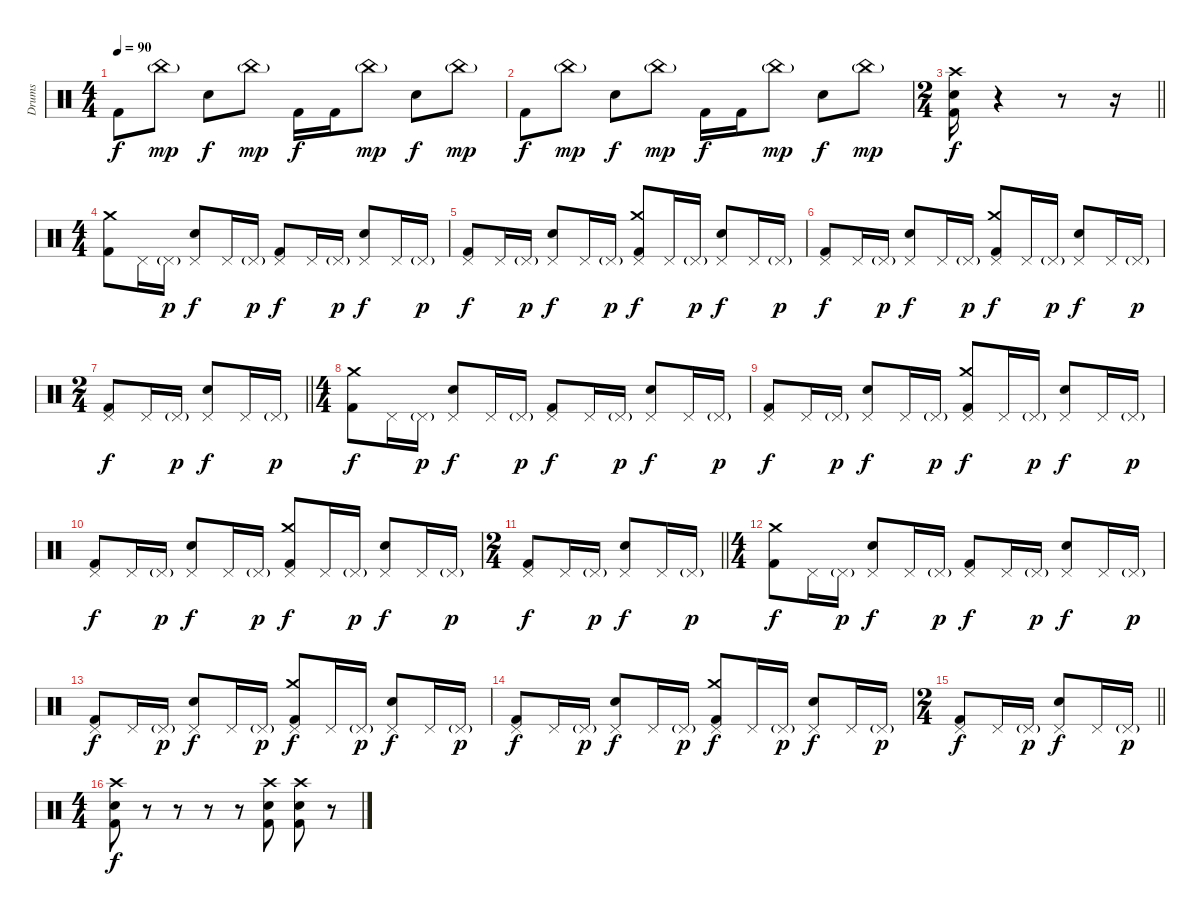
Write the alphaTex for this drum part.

\track ("Drums" "Drums") {instrument percussion}
\staff {score}
\articulation defaults
\ts (4 4)
\tempo 90
\clef neutral
\ks c "Kick (hit) 2".8{dy f} "China (hit)"{g}.8{dy mp} "Electric Snare (hit)".8{dy f} "China (hit)"{g}.8{dy mp} "Kick (hit) 2".16{dy f} "Kick (hit) 2".16 "China (hit)"{g}.8{dy mp} "Electric Snare (hit)".8{dy f} "China (hit)"{g}.8{dy mp}
|
"Kick (hit) 2".8{dy f} "China (hit)"{g}.8{dy mp} "Electric Snare (hit)".8{dy f} "China (hit)"{g}.8{dy mp} "Kick (hit) 2".16{dy f} "Kick (hit) 2".16 "China (hit)"{g}.8{dy mp} "Electric Snare (hit)".8{dy f} "China (hit)"{g}.8{dy mp} |
\ts (2 4)
\barLineRight lightlight
("Crash high (hit)" "Electric Snare (hit)" "Kick (hit) 2").16{dy f} r.4 r.8 r.16 |
\ts (4 4)
("Crash medium (hit)" "Kick (hit) 2").8 "Pedal Hi-Hat (hit)".16 "Pedal Hi-Hat (hit)"{g}.16{dy p} ("Pedal Hi-Hat (hit)" "Electric Snare (hit)").8{dy f} "Pedal Hi-Hat (hit)".16 "Pedal Hi-Hat (hit)"{g}.16{dy p} ("Pedal Hi-Hat (hit)" "Kick (hit) 2").8{dy f} "Pedal Hi-Hat (hit)".16 "Pedal Hi-Hat (hit)"{g}.16{dy p} ("Pedal Hi-Hat (hit)" "Electric Snare (hit)").8{dy f} "Pedal Hi-Hat (hit)".16 "Pedal Hi-Hat (hit)"{g}.16{dy p} |
("Pedal Hi-Hat (hit)" "Kick (hit) 2").8{dy f} "Pedal Hi-Hat (hit)".16 "Pedal Hi-Hat (hit)"{g}.16{dy p} ("Pedal Hi-Hat (hit)" "Electric Snare (hit)").8{dy f} "Pedal Hi-Hat (hit)".16 "Pedal Hi-Hat (hit)"{g}.16{dy p} ("Crash medium (hit)" "Pedal Hi-Hat (hit)" "Kick (hit) 2").8{dy f} "Pedal Hi-Hat (hit)".16 "Pedal Hi-Hat (hit)"{g}.16{dy p} ("Pedal Hi-Hat (hit)" "Electric Snare (hit)").8{dy f} "Pedal Hi-Hat (hit)".16 "Pedal Hi-Hat (hit)"{g}.16{dy p} |
("Pedal Hi-Hat (hit)" "Kick (hit) 2").8{dy f} "Pedal Hi-Hat (hit)".16 "Pedal Hi-Hat (hit)"{g}.16{dy p} ("Pedal Hi-Hat (hit)" "Electric Snare (hit)").8{dy f} "Pedal Hi-Hat (hit)".16 "Pedal Hi-Hat (hit)"{g}.16{dy p} ("Crash medium (hit)" "Pedal Hi-Hat (hit)" "Kick (hit) 2").8{dy f} "Pedal Hi-Hat (hit)".16 "Pedal Hi-Hat (hit)"{g}.16{dy p} ("Pedal Hi-Hat (hit)" "Electric Snare (hit)").8{dy f} "Pedal Hi-Hat (hit)".16 "Pedal Hi-Hat (hit)"{g}.16{dy p} |
\ts (2 4)
\barLineRight lightlight
("Pedal Hi-Hat (hit)" "Kick (hit) 2").8{dy f} "Pedal Hi-Hat (hit)".16 "Pedal Hi-Hat (hit)"{g}.16{dy p} ("Pedal Hi-Hat (hit)" "Electric Snare (hit)").8{dy f} "Pedal Hi-Hat (hit)".16 "Pedal Hi-Hat (hit)"{g}.16{dy p} |
\ts (4 4)
("Crash medium (hit)" "Kick (hit) 2").8{dy f} "Pedal Hi-Hat (hit)".16 "Pedal Hi-Hat (hit)"{g}.16{dy p} ("Pedal Hi-Hat (hit)" "Electric Snare (hit)").8{dy f} "Pedal Hi-Hat (hit)".16 "Pedal Hi-Hat (hit)"{g}.16{dy p} ("Pedal Hi-Hat (hit)" "Kick (hit) 2").8{dy f} "Pedal Hi-Hat (hit)".16 "Pedal Hi-Hat (hit)"{g}.16{dy p} ("Pedal Hi-Hat (hit)" "Electric Snare (hit)").8{dy f} "Pedal Hi-Hat (hit)".16 "Pedal Hi-Hat (hit)"{g}.16{dy p} |
("Pedal Hi-Hat (hit)" "Kick (hit) 2").8{dy f} "Pedal Hi-Hat (hit)".16 "Pedal Hi-Hat (hit)"{g}.16{dy p} ("Pedal Hi-Hat (hit)" "Electric Snare (hit)").8{dy f} "Pedal Hi-Hat (hit)".16 "Pedal Hi-Hat (hit)"{g}.16{dy p} ("Crash medium (hit)" "Pedal Hi-Hat (hit)" "Kick (hit) 2").8{dy f} "Pedal Hi-Hat (hit)".16 "Pedal Hi-Hat (hit)"{g}.16{dy p} ("Pedal Hi-Hat (hit)" "Electric Snare (hit)").8{dy f} "Pedal Hi-Hat (hit)".16 "Pedal Hi-Hat (hit)"{g}.16{dy p} |
("Pedal Hi-Hat (hit)" "Kick (hit) 2").8{dy f} "Pedal Hi-Hat (hit)".16 "Pedal Hi-Hat (hit)"{g}.16{dy p} ("Pedal Hi-Hat (hit)" "Electric Snare (hit)").8{dy f} "Pedal Hi-Hat (hit)".16 "Pedal Hi-Hat (hit)"{g}.16{dy p} ("Crash medium (hit)" "Pedal Hi-Hat (hit)" "Kick (hit) 2").8{dy f} "Pedal Hi-Hat (hit)".16 "Pedal Hi-Hat (hit)"{g}.16{dy p} ("Pedal Hi-Hat (hit)" "Electric Snare (hit)").8{dy f} "Pedal Hi-Hat (hit)".16 "Pedal Hi-Hat (hit)"{g}.16{dy p} |
\ts (2 4)
\barLineRight lightlight
("Pedal Hi-Hat (hit)" "Kick (hit) 2").8{dy f} "Pedal Hi-Hat (hit)".16 "Pedal Hi-Hat (hit)"{g}.16{dy p} ("Pedal Hi-Hat (hit)" "Electric Snare (hit)").8{dy f} "Pedal Hi-Hat (hit)".16 "Pedal Hi-Hat (hit)"{g}.16{dy p} |
\ts (4 4)
("Crash medium (hit)" "Kick (hit) 2").8{dy f} "Pedal Hi-Hat (hit)".16 "Pedal Hi-Hat (hit)"{g}.16{dy p} ("Pedal Hi-Hat (hit)" "Electric Snare (hit)").8{dy f} "Pedal Hi-Hat (hit)".16 "Pedal Hi-Hat (hit)"{g}.16{dy p} ("Pedal Hi-Hat (hit)" "Kick (hit) 2").8{dy f} "Pedal Hi-Hat (hit)".16 "Pedal Hi-Hat (hit)"{g}.16{dy p} ("Pedal Hi-Hat (hit)" "Electric Snare (hit)").8{dy f} "Pedal Hi-Hat (hit)".16 "Pedal Hi-Hat (hit)"{g}.16{dy p} |
("Pedal Hi-Hat (hit)" "Kick (hit) 2").8{dy f} "Pedal Hi-Hat (hit)".16 "Pedal Hi-Hat (hit)"{g}.16{dy p} ("Pedal Hi-Hat (hit)" "Electric Snare (hit)").8{dy f} "Pedal Hi-Hat (hit)".16 "Pedal Hi-Hat (hit)"{g}.16{dy p} ("Crash medium (hit)" "Pedal Hi-Hat (hit)" "Kick (hit) 2").8{dy f} "Pedal Hi-Hat (hit)".16 "Pedal Hi-Hat (hit)"{g}.16{dy p} ("Pedal Hi-Hat (hit)" "Electric Snare (hit)").8{dy f} "Pedal Hi-Hat (hit)".16 "Pedal Hi-Hat (hit)"{g}.16{dy p} |
("Pedal Hi-Hat (hit)" "Kick (hit) 2").8{dy f} "Pedal Hi-Hat (hit)".16 "Pedal Hi-Hat (hit)"{g}.16{dy p} ("Pedal Hi-Hat (hit)" "Electric Snare (hit)").8{dy f} "Pedal Hi-Hat (hit)".16 "Pedal Hi-Hat (hit)"{g}.16{dy p} ("Crash medium (hit)" "Pedal Hi-Hat (hit)" "Kick (hit) 2").8{dy f} "Pedal Hi-Hat (hit)".16 "Pedal Hi-Hat (hit)"{g}.16{dy p} ("Pedal Hi-Hat (hit)" "Electric Snare (hit)").8{dy f} "Pedal Hi-Hat (hit)".16 "Pedal Hi-Hat (hit)"{g}.16{dy p} |
\ts (2 4)
\barLineRight lightlight
("Pedal Hi-Hat (hit)" "Kick (hit) 2").8{dy f} "Pedal Hi-Hat (hit)".16 "Pedal Hi-Hat (hit)"{g}.16{dy p} ("Pedal Hi-Hat (hit)" "Electric Snare (hit)").8{dy f} "Pedal Hi-Hat (hit)".16 "Pedal Hi-Hat (hit)"{g}.16{dy p} |
\ts (4 4)
("Crash high (hit)" "Electric Snare (hit)" "Kick (hit) 2").8{dy f} r.8 r.8 r.8 r.8 ("Crash high (hit)" "Electric Snare (hit)" "Kick (hit) 2").8 ("Crash high (hit)" "Electric Snare (hit)" "Kick (hit) 2").8 r.8
